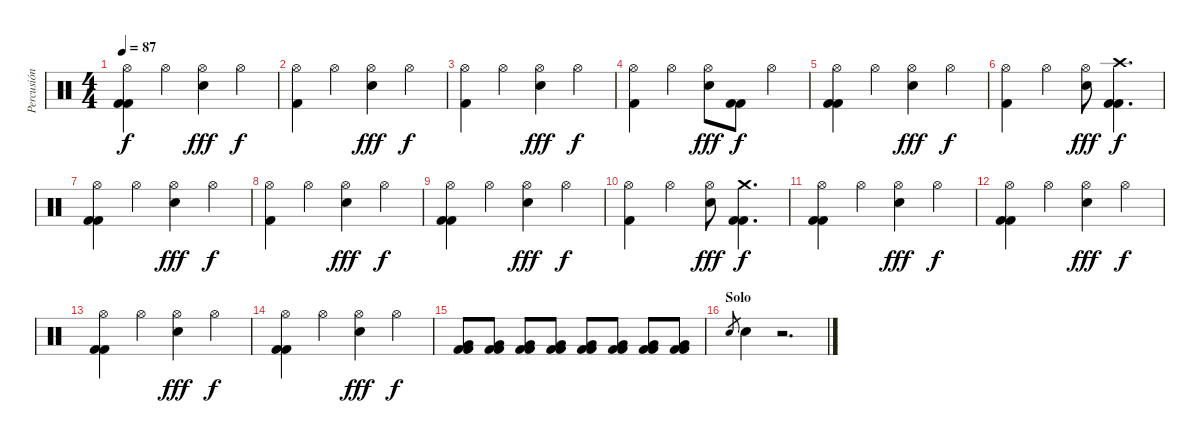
\track ("Percusión" "Percusión") {instrument percussion}
\staff {score}
\articulation defaults
\ts (4 4)
\tempo 87
\clef neutral
\ks c
("Hi-Hat (open)" "Kick (hit) 2" "Kick (hit) 2").4{dy f} "Hi-Hat (open)".4 ("Hi-Hat (open)" "Snare (hit) 2").4{dy fff} "Hi-Hat (open)".4{dy f} |
("Hi-Hat (open)" "Kick (hit) 2").4 "Hi-Hat (open)".4 ("Hi-Hat (open)" "Snare (hit) 2").4{dy fff} "Hi-Hat (open)".4{dy f} |
("Hi-Hat (open)" "Kick (hit) 2").4 "Hi-Hat (open)".4 ("Hi-Hat (open)" "Snare (hit) 2").4{dy fff} "Hi-Hat (open)".4{dy f} |
("Hi-Hat (open)" "Kick (hit) 2").4 "Hi-Hat (open)".4 ("Hi-Hat (open)" "Snare (hit) 2").8{dy fff} ("Kick (hit) 2" "Kick (hit) 2").8{dy f} "Hi-Hat (open)".4 |
("Hi-Hat (open)" "Kick (hit) 2" "Kick (hit) 2").4 "Hi-Hat (open)".4 ("Hi-Hat (open)" "Snare (hit) 2").4{dy fff} "Hi-Hat (open)".4{dy f} |
("Hi-Hat (open)" "Kick (hit) 2").4 "Hi-Hat (open)".4 ("Hi-Hat (open)" "Snare (hit) 2").8{dy fff} ("Crash high (hit)" "Kick (hit) 2" "Kick (hit) 2").4{d dy f} |
("Hi-Hat (open)" "Kick (hit) 2" "Kick (hit) 2").4 "Hi-Hat (open)".4 ("Hi-Hat (open)" "Snare (hit) 2").4{dy fff} "Hi-Hat (open)".4{dy f} |
("Hi-Hat (open)" "Kick (hit) 2").4 "Hi-Hat (open)".4 ("Hi-Hat (open)" "Snare (hit) 2").4{dy fff} "Hi-Hat (open)".4{dy f} |
("Hi-Hat (open)" "Kick (hit) 2" "Kick (hit) 2").4 "Hi-Hat (open)".4 ("Hi-Hat (open)" "Snare (hit) 2").4{dy fff} "Hi-Hat (open)".4{dy f} |
("Hi-Hat (open)" "Kick (hit) 2").4 "Hi-Hat (open)".4 ("Hi-Hat (open)" "Snare (hit) 2").8{dy fff} ("Crash medium (hit)" "Kick (hit) 2" "Kick (hit) 2").4{d dy f} |
("Hi-Hat (open)" "Kick (hit) 2" "Kick (hit) 2").4 "Hi-Hat (open)".4 ("Hi-Hat (open)" "Snare (hit) 2").4{dy fff} "Hi-Hat (open)".4{dy f} |
("Hi-Hat (open)" "Kick (hit) 2" "Kick (hit) 2").4 "Hi-Hat (open)".4 ("Hi-Hat (open)" "Snare (hit) 2").4{dy fff} "Hi-Hat (open)".4{dy f} |
("Hi-Hat (open)" "Kick (hit) 2" "Kick (hit) 2").4 "Hi-Hat (open)".4 ("Hi-Hat (open)" "Snare (hit) 2").4{dy fff} "Hi-Hat (open)".4{dy f} |
("Hi-Hat (open)" "Kick (hit) 2" "Kick (hit) 2").4 "Hi-Hat (open)".4 ("Hi-Hat (open)" "Snare (hit) 2").4{dy fff} "Hi-Hat (open)".4{dy f} |
("Very Low Tom (hit)" "Kick (hit) 2" "Kick (hit) 2").8 ("Very Low Tom (hit)" "Kick (hit) 2" "Kick (hit) 2").8 ("Very Low Tom (hit)" "Kick (hit) 2" "Kick (hit) 2").8 ("Very Low Tom (hit)" "Kick (hit) 2" "Kick (hit) 2").8 ("Very Low Tom (hit)" "Kick (hit) 2" "Kick (hit) 2").8 ("Very Low Tom (hit)" "Kick (hit) 2" "Kick (hit) 2").8 ("Very Low Tom (hit)" "Kick (hit) 2" "Kick (hit) 2").8 ("Very Low Tom (hit)" "Kick (hit) 2" "Kick (hit) 2").8 |
\section ("" "Solo")
"Snare (hit) 2".8{gr} "Snare (hit) 2".4 r.2{d}
